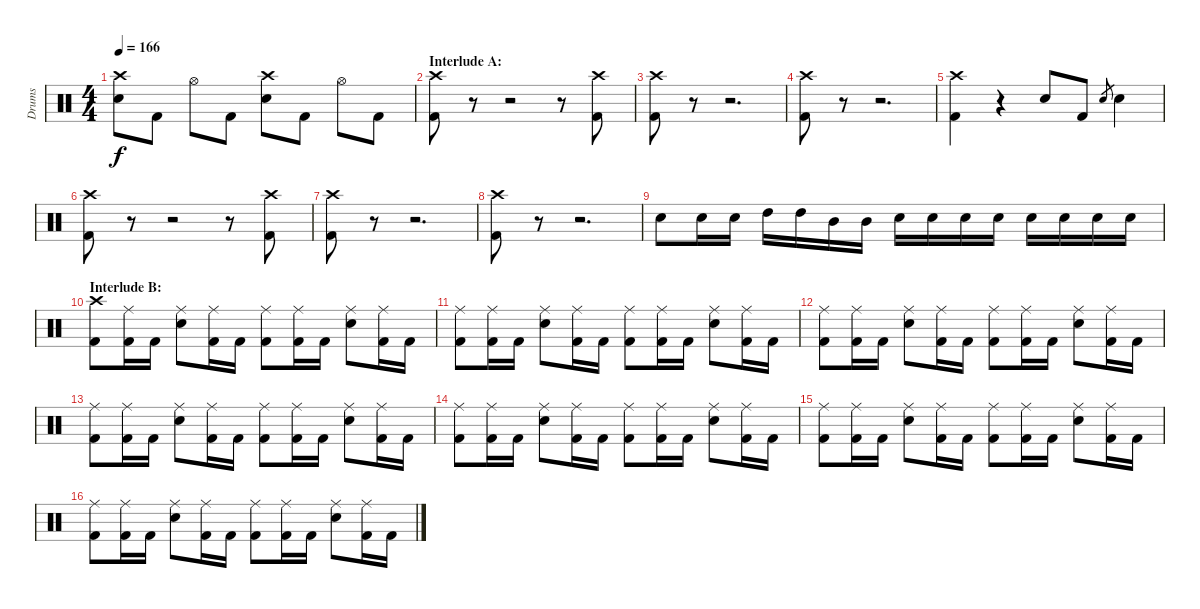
\track ("Drums" "Drums") {instrument percussion}
\staff {score}
\articulation defaults
\ts (4 4)
\tempo 166
\clef neutral
\ks c
("Crash high (hit)" "Electric Snare (hit)").8{dy f} "Kick (hit) 2".8 "Hi-Hat (open)".8 "Kick (hit) 2".8 ("Crash high (hit)" "Electric Snare (hit)").8 "Kick (hit) 2".8 "Hi-Hat (open)".8 "Kick (hit) 2".8 |
\section ("" "Interlude A:")
("Crash high (hit)" "Kick (hit) 2").8 r.8 r.2 r.8 ("Crash high (hit)" "Kick (hit) 2").8 |
("Crash high (hit)" "Kick (hit) 2").8 r.8 r.2{d} |
("Crash high (hit)" "Kick (hit) 2").8 r.8 r.2{d} |
("Crash high (hit)" "Kick (hit) 2").4 r.4 "Electric Snare (hit)".8 "Kick (hit) 2".8 "Electric Snare (hit)".8{gr} "Electric Snare (hit)".4 |
("Crash high (hit)" "Kick (hit) 2").8 r.8 r.2 r.8 ("Crash high (hit)" "Kick (hit) 2").8 |
("Crash high (hit)" "Kick (hit) 2").8 r.8 r.2{d} |
("Crash high (hit)" "Kick (hit) 2").8 r.8 r.2{d} |
"Electric Snare (hit)".8 "Electric Snare (hit)".16 "Electric Snare (hit)".16 "High Tom (hit)".16 "High Tom (hit)".16 "Mid Tom (hit)".16 "Mid Tom (hit)".16 "Electric Snare (hit)".16 "Electric Snare (hit)".16 "Electric Snare (hit)".16 "Electric Snare (hit)".16 "Electric Snare (hit)".16 "Electric Snare (hit)".16 "Electric Snare (hit)".16 "Electric Snare (hit)".16 |
\section ("" "Interlude B:")
("Crash high (hit)" "Kick (hit) 2").8 ("Ride (middle)" "Kick (hit) 2").16 "Kick (hit) 2".16 ("Ride (middle)" "Electric Snare (hit)").8 ("Ride (middle)" "Kick (hit) 2").16 "Kick (hit) 2".16 ("Ride (middle)" "Kick (hit) 2").8 ("Ride (middle)" "Kick (hit) 2").16 "Kick (hit) 2".16 ("Ride (middle)" "Electric Snare (hit)").8 ("Ride (middle)" "Kick (hit) 2").16 "Kick (hit) 2".16 |
("Ride (middle)" "Kick (hit) 2").8 ("Ride (middle)" "Kick (hit) 2").16 "Kick (hit) 2".16 ("Ride (middle)" "Electric Snare (hit)").8 ("Ride (middle)" "Kick (hit) 2").16 "Kick (hit) 2".16 ("Ride (middle)" "Kick (hit) 2").8 ("Ride (middle)" "Kick (hit) 2").16 "Kick (hit) 2".16 ("Ride (middle)" "Electric Snare (hit)").8 ("Ride (middle)" "Kick (hit) 2").16 "Kick (hit) 2".16 |
("Ride (middle)" "Kick (hit) 2").8 ("Ride (middle)" "Kick (hit) 2").16 "Kick (hit) 2".16 ("Ride (middle)" "Electric Snare (hit)").8 ("Ride (middle)" "Kick (hit) 2").16 "Kick (hit) 2".16 ("Ride (middle)" "Kick (hit) 2").8 ("Ride (middle)" "Kick (hit) 2").16 "Kick (hit) 2".16 ("Ride (middle)" "Electric Snare (hit)").8 ("Ride (middle)" "Kick (hit) 2").16 "Kick (hit) 2".16 |
("Ride (middle)" "Kick (hit) 2").8 ("Ride (middle)" "Kick (hit) 2").16 "Kick (hit) 2".16 ("Ride (middle)" "Electric Snare (hit)").8 ("Ride (middle)" "Kick (hit) 2").16 "Kick (hit) 2".16 ("Ride (middle)" "Kick (hit) 2").8 ("Ride (middle)" "Kick (hit) 2").16 "Kick (hit) 2".16 ("Ride (middle)" "Electric Snare (hit)").8 ("Ride (middle)" "Kick (hit) 2").16 "Kick (hit) 2".16 |
("Ride (middle)" "Kick (hit) 2").8 ("Ride (middle)" "Kick (hit) 2").16 "Kick (hit) 2".16 ("Ride (middle)" "Electric Snare (hit)").8 ("Ride (middle)" "Kick (hit) 2").16 "Kick (hit) 2".16 ("Ride (middle)" "Kick (hit) 2").8 ("Ride (middle)" "Kick (hit) 2").16 "Kick (hit) 2".16 ("Ride (middle)" "Electric Snare (hit)").8 ("Ride (middle)" "Kick (hit) 2").16 "Kick (hit) 2".16 |
("Ride (middle)" "Kick (hit) 2").8 ("Ride (middle)" "Kick (hit) 2").16 "Kick (hit) 2".16 ("Ride (middle)" "Electric Snare (hit)").8 ("Ride (middle)" "Kick (hit) 2").16 "Kick (hit) 2".16 ("Ride (middle)" "Kick (hit) 2").8 ("Ride (middle)" "Kick (hit) 2").16 "Kick (hit) 2".16 ("Ride (middle)" "Electric Snare (hit)").8 ("Ride (middle)" "Kick (hit) 2").16 "Kick (hit) 2".16 |
("Ride (middle)" "Kick (hit) 2").8 ("Ride (middle)" "Kick (hit) 2").16 "Kick (hit) 2".16 ("Ride (middle)" "Electric Snare (hit)").8 ("Ride (middle)" "Kick (hit) 2").16 "Kick (hit) 2".16 ("Ride (middle)" "Kick (hit) 2").8 ("Ride (middle)" "Kick (hit) 2").16 "Kick (hit) 2".16 ("Ride (middle)" "Electric Snare (hit)").8 ("Ride (middle)" "Kick (hit) 2").16 "Kick (hit) 2".16
